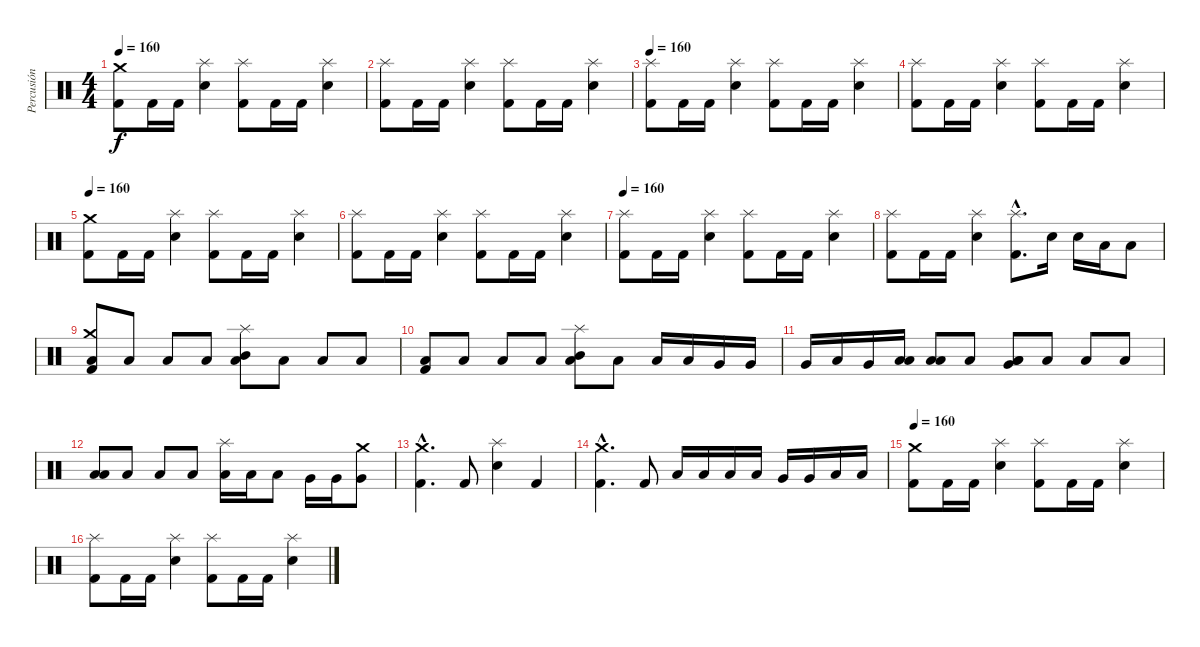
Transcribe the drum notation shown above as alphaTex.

\track ("Percusión" "Percusión") {instrument percussion}
\staff {score}
\articulation defaults
\ts (4 4)
\tempo 170
\tempo 160
\clef neutral
\ks c
("Kick (hit) 2" "Crash medium (hit)").8{dy f} "Kick (hit) 2".16 "Kick (hit) 2".16 ("Electric Snare (hit)" "Splash (hit)").4 ("Kick (hit) 2" "Splash (hit)").8 "Kick (hit) 2".16 "Kick (hit) 2".16 ("Electric Snare (hit)" "Splash (hit)").4 |
("Kick (hit) 2" "Splash (hit)").8 "Kick (hit) 2".16 "Kick (hit) 2".16 ("Electric Snare (hit)" "Splash (hit)").4 ("Kick (hit) 2" "Splash (hit)").8 "Kick (hit) 2".16 "Kick (hit) 2".16 ("Electric Snare (hit)" "Splash (hit)").4 |
\tempo 160
("Kick (hit) 2" "Splash (hit)").8 "Kick (hit) 2".16 "Kick (hit) 2".16 ("Electric Snare (hit)" "Splash (hit)").4 ("Kick (hit) 2" "Splash (hit)").8 "Kick (hit) 2".16 "Kick (hit) 2".16 ("Electric Snare (hit)" "Splash (hit)").4 |
("Kick (hit) 2" "Splash (hit)").8 "Kick (hit) 2".16 "Kick (hit) 2".16 ("Electric Snare (hit)" "Splash (hit)").4 ("Kick (hit) 2" "Splash (hit)").8 "Kick (hit) 2".16 "Kick (hit) 2".16 ("Electric Snare (hit)" "Splash (hit)").4 |
\tempo 160
("Kick (hit) 2" "Crash medium (hit)").8 "Kick (hit) 2".16 "Kick (hit) 2".16 ("Electric Snare (hit)" "Splash (hit)").4 ("Kick (hit) 2" "Splash (hit)").8 "Kick (hit) 2".16 "Kick (hit) 2".16 ("Electric Snare (hit)" "Splash (hit)").4 |
("Kick (hit) 2" "Splash (hit)").8 "Kick (hit) 2".16 "Kick (hit) 2".16 ("Electric Snare (hit)" "Splash (hit)").4 ("Kick (hit) 2" "Splash (hit)").8 "Kick (hit) 2".16 "Kick (hit) 2".16 ("Electric Snare (hit)" "Splash (hit)").4 |
\tempo 160
("Kick (hit) 2" "Splash (hit)").8 "Kick (hit) 2".16 "Kick (hit) 2".16 ("Electric Snare (hit)" "Splash (hit)").4 ("Kick (hit) 2" "Splash (hit)").8 "Kick (hit) 2".16 "Kick (hit) 2".16 ("Electric Snare (hit)" "Splash (hit)").4 |
("Kick (hit) 2" "Splash (hit)").8 "Kick (hit) 2".16 "Kick (hit) 2".16 ("Electric Snare (hit)" "Splash (hit)").4 ("Kick (hit) 2"{hac} "Splash (hit)"{hac}).8{d} "Electric Snare (hit)".16 "Electric Snare (hit)".16 "Low Tom (hit)".16 "Low Tom (hit)".8 |
("Crash medium (hit)" "Low Floor Tom (hit)" "Kick (hit) 2").8 "Low Floor Tom (hit)".8 "Low Floor Tom (hit)".8 "Low Floor Tom (hit)".8 ("Mid Tom (hit)" "Splash (hit)" "Low Tom (hit)").8 "Low Floor Tom (hit)".8 "Low Floor Tom (hit)".8 "Low Floor Tom (hit)".8 |
("Kick (hit) 2" "Low Floor Tom (hit)").8 "Low Floor Tom (hit)".8 "Low Floor Tom (hit)".8 "Low Floor Tom (hit)".8 ("Mid Tom (hit)" "Splash (hit)" "Low Tom (hit)").8 "Low Floor Tom (hit)".8 "Low Tom (hit)".16 "Low Tom (hit)".16 "Very Low Tom (hit)".16 "Very Low Tom (hit)".16 |
"Very Low Tom (hit)".16 "Low Tom (hit)".16 "Very Low Tom (hit)".16 ("Low Floor Tom (hit)" "Low Floor Tom (hit)").16 ("Low Floor Tom (hit)" "Low Floor Tom (hit)").8 "Low Floor Tom (hit)".8 ("Low Tom (hit)" "Very Low Tom (hit)" "Low Floor Tom (hit)").8 "Low Floor Tom (hit)".8 "Low Floor Tom (hit)".8 "Low Floor Tom (hit)".8 |
("Low Floor Tom (hit)" "Low Tom (hit)").8 "Low Floor Tom (hit)".8 "Low Floor Tom (hit)".8 "Low Floor Tom (hit)".8 ("Splash (hit)" "Low Tom (hit)").16 "Low Tom (hit)".16 "Low Tom (hit)".8 "Very Low Tom (hit)".16 "Very Low Tom (hit)".16 ("Crash medium (hit)" "Very Low Tom (hit)").8 |
("Crash medium (hit)"{hac} "Kick (hit) 2"{hac}).4{d} "Kick (hit) 2".8 ("Splash (hit)" "Electric Snare (hit)").4 "Kick (hit) 2".4 |
("Crash medium (hit)"{hac} "Kick (hit) 2"{hac}).4{d} "Kick (hit) 2".8 "Low Tom (hit)".16 "Low Tom (hit)".16 "Low Tom (hit)".16 "Low Tom (hit)".16 "Very Low Tom (hit)".16 "Very Low Tom (hit)".16 "Low Floor Tom (hit)".16 "Low Floor Tom (hit)".16 |
\tempo 170
\tempo 160
("Kick (hit) 2" "Crash medium (hit)").8 "Kick (hit) 2".16 "Kick (hit) 2".16 ("Electric Snare (hit)" "Splash (hit)").4 ("Kick (hit) 2" "Splash (hit)").8 "Kick (hit) 2".16 "Kick (hit) 2".16 ("Electric Snare (hit)" "Splash (hit)").4 |
("Kick (hit) 2" "Splash (hit)").8 "Kick (hit) 2".16 "Kick (hit) 2".16 ("Electric Snare (hit)" "Splash (hit)").4 ("Kick (hit) 2" "Splash (hit)").8 "Kick (hit) 2".16 "Kick (hit) 2".16 ("Electric Snare (hit)" "Splash (hit)").4
